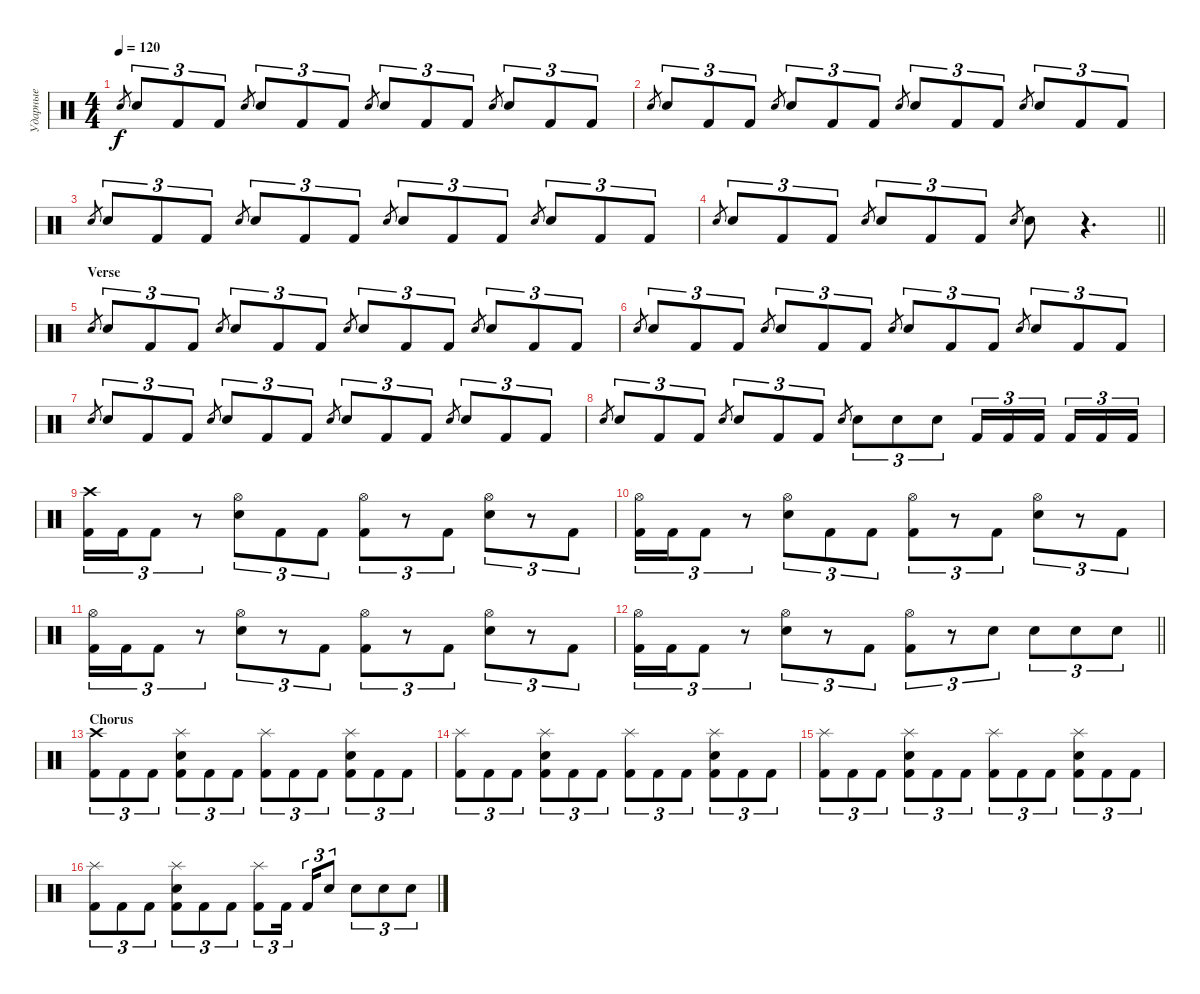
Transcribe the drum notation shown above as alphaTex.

\track ("Ударные" "Ударные") {instrument percussion}
\staff {score}
\articulation defaults
\ts (4 4)
\tempo 120
\clef neutral
\ks c "Electric Snare (hit)".8{gr dy f} "Electric Snare (hit)".8{tu (3 2)} "Kick (hit) 2".8{tu (3 2)} "Kick (hit) 2".8{tu (3 2)} "Electric Snare (hit)".8{gr} "Electric Snare (hit)".8{tu (3 2)} "Kick (hit) 2".8{tu (3 2)} "Kick (hit) 2".8{tu (3 2)} "Electric Snare (hit)".8{gr} "Electric Snare (hit)".8{tu (3 2)} "Kick (hit) 2".8{tu (3 2)} "Kick (hit) 2".8{tu (3 2)} "Electric Snare (hit)".8{gr} "Electric Snare (hit)".8{tu (3 2)} "Kick (hit) 2".8{tu (3 2)} "Kick (hit) 2".8{tu (3 2)}
|
"Electric Snare (hit)".8{gr} "Electric Snare (hit)".8{tu (3 2)} "Kick (hit) 2".8{tu (3 2)} "Kick (hit) 2".8{tu (3 2)} "Electric Snare (hit)".8{gr} "Electric Snare (hit)".8{tu (3 2)} "Kick (hit) 2".8{tu (3 2)} "Kick (hit) 2".8{tu (3 2)} "Electric Snare (hit)".8{gr} "Electric Snare (hit)".8{tu (3 2)} "Kick (hit) 2".8{tu (3 2)} "Kick (hit) 2".8{tu (3 2)} "Electric Snare (hit)".8{gr} "Electric Snare (hit)".8{tu (3 2)} "Kick (hit) 2".8{tu (3 2)} "Kick (hit) 2".8{tu (3 2)} |
"Electric Snare (hit)".8{gr} "Electric Snare (hit)".8{tu (3 2)} "Kick (hit) 2".8{tu (3 2)} "Kick (hit) 2".8{tu (3 2)} "Electric Snare (hit)".8{gr} "Electric Snare (hit)".8{tu (3 2)} "Kick (hit) 2".8{tu (3 2)} "Kick (hit) 2".8{tu (3 2)} "Electric Snare (hit)".8{gr} "Electric Snare (hit)".8{tu (3 2)} "Kick (hit) 2".8{tu (3 2)} "Kick (hit) 2".8{tu (3 2)} "Electric Snare (hit)".8{gr} "Electric Snare (hit)".8{tu (3 2)} "Kick (hit) 2".8{tu (3 2)} "Kick (hit) 2".8{tu (3 2)} |
\barLineRight lightlight "Electric Snare (hit)".8{gr} "Electric Snare (hit)".8{tu (3 2)} "Kick (hit) 2".8{tu (3 2)} "Kick (hit) 2".8{tu (3 2)} "Electric Snare (hit)".8{gr} "Electric Snare (hit)".8{tu (3 2)} "Kick (hit) 2".8{tu (3 2)} "Kick (hit) 2".8{tu (3 2)} "Electric Snare (hit)".8{gr} "Electric Snare (hit)".8
r.4{d} |
\section ("" "Verse")
"Electric Snare (hit)".8{gr} "Electric Snare (hit)".8{tu (3 2)} "Kick (hit) 2".8{tu (3 2)} "Kick (hit) 2".8{tu (3 2)} "Electric Snare (hit)".8{gr} "Electric Snare (hit)".8{tu (3 2)} "Kick (hit) 2".8{tu (3 2)} "Kick (hit) 2".8{tu (3 2)} "Electric Snare (hit)".8{gr} "Electric Snare (hit)".8{tu (3 2)} "Kick (hit) 2".8{tu (3 2)} "Kick (hit) 2".8{tu (3 2)} "Electric Snare (hit)".8{gr} "Electric Snare (hit)".8{tu (3 2)} "Kick (hit) 2".8{tu (3 2)} "Kick (hit) 2".8{tu (3 2)} |
"Electric Snare (hit)".8{gr} "Electric Snare (hit)".8{tu (3 2)} "Kick (hit) 2".8{tu (3 2)} "Kick (hit) 2".8{tu (3 2)} "Electric Snare (hit)".8{gr} "Electric Snare (hit)".8{tu (3 2)} "Kick (hit) 2".8{tu (3 2)} "Kick (hit) 2".8{tu (3 2)} "Electric Snare (hit)".8{gr} "Electric Snare (hit)".8{tu (3 2)} "Kick (hit) 2".8{tu (3 2)} "Kick (hit) 2".8{tu (3 2)} "Electric Snare (hit)".8{gr} "Electric Snare (hit)".8{tu (3 2)} "Kick (hit) 2".8{tu (3 2)} "Kick (hit) 2".8{tu (3 2)} |
"Electric Snare (hit)".8{gr} "Electric Snare (hit)".8{tu (3 2)} "Kick (hit) 2".8{tu (3 2)} "Kick (hit) 2".8{tu (3 2)} "Electric Snare (hit)".8{gr} "Electric Snare (hit)".8{tu (3 2)} "Kick (hit) 2".8{tu (3 2)} "Kick (hit) 2".8{tu (3 2)} "Electric Snare (hit)".8{gr} "Electric Snare (hit)".8{tu (3 2)} "Kick (hit) 2".8{tu (3 2)} "Kick (hit) 2".8{tu (3 2)} "Electric Snare (hit)".8{gr} "Electric Snare (hit)".8{tu (3 2)} "Kick (hit) 2".8{tu (3 2)} "Kick (hit) 2".8{tu (3 2)} |
"Electric Snare (hit)".8{gr} "Electric Snare (hit)".8{tu (3 2)} "Kick (hit) 2".8{tu (3 2)} "Kick (hit) 2".8{tu (3 2)} "Electric Snare (hit)".8{gr} "Electric Snare (hit)".8{tu (3 2)} "Kick (hit) 2".8{tu (3 2)} "Kick (hit) 2".8{tu (3 2)} "Electric Snare (hit)".8{gr} "Electric Snare (hit)".8{tu (3 2)} "Electric Snare (hit)".8{tu (3 2)} "Electric Snare (hit)".8{tu (3 2)} "Kick (hit) 2".16{tu (3 2)} "Kick (hit) 2".16{tu (3 2)} "Kick (hit) 2".16{tu (3 2)} "Kick (hit) 2".16{tu (3 2)} "Kick (hit) 2".16{tu (3 2)} "Kick (hit) 2".16{tu (3 2)} |
("Crash high (hit)" "Kick (hit) 2").16{tu (3 2)} "Kick (hit) 2".16{tu (3 2)} "Kick (hit) 2".8{tu (3 2)} r.8{tu (3 2)} ("Hi-Hat (open)" "Electric Snare (hit)").8{tu (3 2)} "Kick (hit) 2".8{tu (3 2)} "Kick (hit) 2".8{tu (3 2)} ("Hi-Hat (open)" "Kick (hit) 2").8{tu (3 2)} r.8{tu (3 2)} "Kick (hit) 2".8{tu (3 2)} ("Hi-Hat (open)" "Electric Snare (hit)").8{tu (3 2)} r.8{tu (3 2)} "Kick (hit) 2".8{tu (3 2)} |
("Hi-Hat (open)" "Kick (hit) 2").16{tu (3 2)} "Kick (hit) 2".16{tu (3 2)} "Kick (hit) 2".8{tu (3 2)} r.8{tu (3 2)} ("Hi-Hat (open)" "Electric Snare (hit)").8{tu (3 2)} "Kick (hit) 2".8{tu (3 2)} "Kick (hit) 2".8{tu (3 2)} ("Hi-Hat (open)" "Kick (hit) 2").8{tu (3 2)} r.8{tu (3 2)} "Kick (hit) 2".8{tu (3 2)} ("Hi-Hat (open)" "Electric Snare (hit)").8{tu (3 2)} r.8{tu (3 2)} "Kick (hit) 2".8{tu (3 2)} |
("Hi-Hat (open)" "Kick (hit) 2").16{tu (3 2)} "Kick (hit) 2".16{tu (3 2)} "Kick (hit) 2".8{tu (3 2)} r.8{tu (3 2)} ("Hi-Hat (open)" "Electric Snare (hit)").8{tu (3 2)} r.8{tu (3 2)} "Kick (hit) 2".8{tu (3 2)} ("Hi-Hat (open)" "Kick (hit) 2").8{tu (3 2)} r.8{tu (3 2)} "Kick (hit) 2".8{tu (3 2)} ("Hi-Hat (open)" "Electric Snare (hit)").8{tu (3 2)} r.8{tu (3 2)} "Kick (hit) 2".8{tu (3 2)} |
\barLineRight lightlight
("Hi-Hat (open)" "Kick (hit) 2").16{tu (3 2)} "Kick (hit) 2".16{tu (3 2)} "Kick (hit) 2".8{tu (3 2)} r.8{tu (3 2)} ("Hi-Hat (open)" "Electric Snare (hit)").8{tu (3 2)} r.8{tu (3 2)} "Kick (hit) 2".8{tu (3 2)} ("Hi-Hat (open)" "Kick (hit) 2").8{tu (3 2)} r.8{tu (3 2)} "Electric Snare (hit)".8{tu (3 2)} "Electric Snare (hit)".8{tu (3 2)} "Electric Snare (hit)".8{tu (3 2)} "Electric Snare (hit)".8{tu (3 2)} |
\section ("" "Chorus")
("Crash high (hit)" "Kick (hit) 2").8{tu (3 2)} "Kick (hit) 2".8{tu (3 2)} "Kick (hit) 2".8{tu (3 2)} ("Splash (hit)" "Electric Snare (hit)" "Kick (hit) 2").8{tu (3 2)} "Kick (hit) 2".8{tu (3 2)} "Kick (hit) 2".8{tu (3 2)} ("Splash (hit)" "Kick (hit) 2").8{tu (3 2)} "Kick (hit) 2".8{tu (3 2)} "Kick (hit) 2".8{tu (3 2)} ("Splash (hit)" "Electric Snare (hit)" "Kick (hit) 2").8{tu (3 2)} "Kick (hit) 2".8{tu (3 2)} "Kick (hit) 2".8{tu (3 2)} |
("Splash (hit)" "Kick (hit) 2").8{tu (3 2)} "Kick (hit) 2".8{tu (3 2)} "Kick (hit) 2".8{tu (3 2)} ("Splash (hit)" "Electric Snare (hit)" "Kick (hit) 2").8{tu (3 2)} "Kick (hit) 2".8{tu (3 2)} "Kick (hit) 2".8{tu (3 2)} ("Splash (hit)" "Kick (hit) 2").8{tu (3 2)} "Kick (hit) 2".8{tu (3 2)} "Kick (hit) 2".8{tu (3 2)} ("Splash (hit)" "Electric Snare (hit)" "Kick (hit) 2").8{tu (3 2)} "Kick (hit) 2".8{tu (3 2)} "Kick (hit) 2".8{tu (3 2)} |
("Splash (hit)" "Kick (hit) 2").8{tu (3 2)} "Kick (hit) 2".8{tu (3 2)} "Kick (hit) 2".8{tu (3 2)} ("Splash (hit)" "Electric Snare (hit)" "Kick (hit) 2").8{tu (3 2)} "Kick (hit) 2".8{tu (3 2)} "Kick (hit) 2".8{tu (3 2)} ("Splash (hit)" "Kick (hit) 2").8{tu (3 2)} "Kick (hit) 2".8{tu (3 2)} "Kick (hit) 2".8{tu (3 2)} ("Splash (hit)" "Electric Snare (hit)" "Kick (hit) 2").8{tu (3 2)} "Kick (hit) 2".8{tu (3 2)} "Kick (hit) 2".8{tu (3 2)} |
("Splash (hit)" "Kick (hit) 2").8{tu (3 2)} "Kick (hit) 2".8{tu (3 2)} "Kick (hit) 2".8{tu (3 2)} ("Splash (hit)" "Electric Snare (hit)" "Kick (hit) 2").8{tu (3 2)} "Kick (hit) 2".8{tu (3 2)} "Kick (hit) 2".8{tu (3 2)} ("Splash (hit)" "Kick (hit) 2").8{tu (3 2)} "Kick (hit) 2".16{tu (3 2)} "Kick (hit) 2".16{tu (3 2)} "Electric Snare (hit)".8{tu (3 2)} "Electric Snare (hit)".8{tu (3 2)} "Electric Snare (hit)".8{tu (3 2)} "Electric Snare (hit)".8{tu (3 2)}
